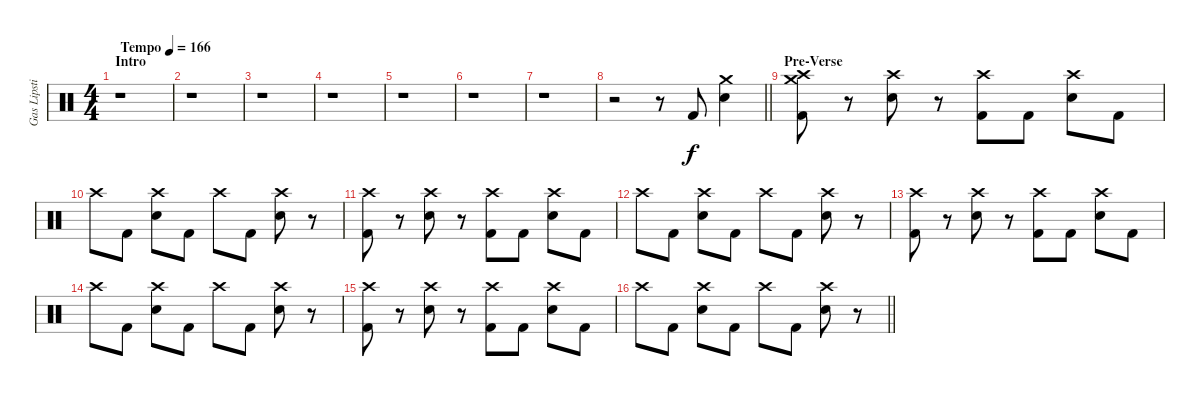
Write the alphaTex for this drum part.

\track ("Gas Lipstick (Drums)" "Gas Lipsti") {instrument percussion}
\staff {score}
\articulation defaults
\ts (4 4)
\section ("" "Intro")
\tempo (166 "Tempo")
\clef neutral
\ks c
r.1{dy f} |
r.1 |
r.1 |
r.1 |
r.1 |
r.1 |
r.1 |
\barLineRight lightlight
r.2 r.8 "Kick (hit) 2".8 ("Crash medium (hit)" "Snare (hit) 2").4 |
\section ("" "Pre-Verse")
("Crash medium (hit)" "Crash high (hit)" "Kick (hit) 2").8 r.8 ("Crash high (hit)" "Snare (hit) 2").8 r.8 ("Crash high (hit)" "Kick (hit) 2").8 "Kick (hit) 2".8 ("Crash high (hit)" "Snare (hit) 2").8 "Kick (hit) 2".8 |
"Crash high (hit)".8 "Kick (hit) 2".8 ("Crash high (hit)" "Snare (hit) 2").8 "Kick (hit) 2".8 "Crash high (hit)".8 "Kick (hit) 2".8 ("Crash high (hit)" "Snare (hit) 2").8 r.8 |
("Crash high (hit)" "Kick (hit) 2").8 r.8 ("Crash high (hit)" "Snare (hit) 2").8 r.8 ("Crash high (hit)" "Kick (hit) 2").8 "Kick (hit) 2".8 ("Crash high (hit)" "Snare (hit) 2").8 "Kick (hit) 2".8 |
"Crash high (hit)".8 "Kick (hit) 2".8 ("Crash high (hit)" "Snare (hit) 2").8 "Kick (hit) 2".8 "Crash high (hit)".8 "Kick (hit) 2".8 ("Crash high (hit)" "Snare (hit) 2").8 r.8 |
("Crash high (hit)" "Kick (hit) 2").8 r.8 ("Crash high (hit)" "Snare (hit) 2").8 r.8 ("Crash high (hit)" "Kick (hit) 2").8 "Kick (hit) 2".8 ("Crash high (hit)" "Snare (hit) 2").8 "Kick (hit) 2".8 |
"Crash high (hit)".8 "Kick (hit) 2".8 ("Crash high (hit)" "Snare (hit) 2").8 "Kick (hit) 2".8 "Crash high (hit)".8 "Kick (hit) 2".8 ("Crash high (hit)" "Snare (hit) 2").8 r.8 |
("Crash high (hit)" "Kick (hit) 2").8 r.8 ("Crash high (hit)" "Snare (hit) 2").8 r.8 ("Crash high (hit)" "Kick (hit) 2").8 "Kick (hit) 2".8 ("Crash high (hit)" "Snare (hit) 2").8 "Kick (hit) 2".8 |
\barLineRight lightlight "Crash high (hit)".8 "Kick (hit) 2".8
("Crash high (hit)" "Snare (hit) 2").8 "Kick (hit) 2".8 "Crash high (hit)".8 "Kick (hit) 2".8 ("Crash high (hit)" "Snare (hit) 2").8 r.8
